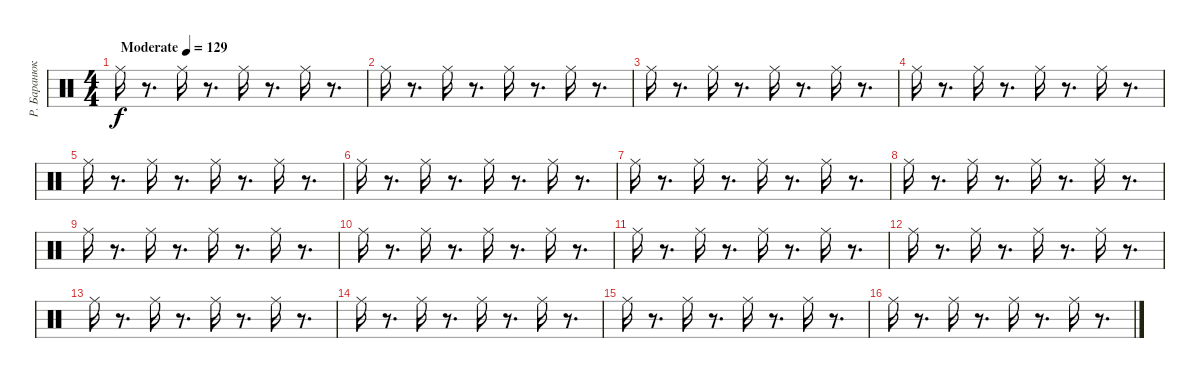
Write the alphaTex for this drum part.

\track ("Р. Баранюк" "Р. Баранюк") {instrument percussion}
\staff {score}
\articulation defaults
\ts (4 4)
\tempo (129 "Moderate")
\clef neutral
\ks c "Ride (middle)".16{dy f}
r.8{d} "Ride (middle)".16 r.8{d} "Ride (middle)".16 r.8{d} "Ride (middle)".16 r.8{d} |
"Ride (middle)".16 r.8{d} "Ride (middle)".16 r.8{d} "Ride (middle)".16 r.8{d} "Ride (middle)".16 r.8{d} |
"Ride (middle)".16 r.8{d} "Ride (middle)".16 r.8{d} "Ride (middle)".16 r.8{d} "Ride (middle)".16 r.8{d} |
"Ride (middle)".16 r.8{d} "Ride (middle)".16 r.8{d} "Ride (middle)".16 r.8{d} "Ride (middle)".16 r.8{d} |
"Ride (middle)".16 r.8{d} "Ride (middle)".16 r.8{d} "Ride (middle)".16 r.8{d} "Ride (middle)".16 r.8{d} |
"Ride (middle)".16 r.8{d} "Ride (middle)".16 r.8{d} "Ride (middle)".16 r.8{d} "Ride (middle)".16 r.8{d} |
"Ride (middle)".16 r.8{d} "Ride (middle)".16 r.8{d} "Ride (middle)".16 r.8{d} "Ride (middle)".16 r.8{d} |
"Ride (middle)".16 r.8{d} "Ride (middle)".16 r.8{d} "Ride (middle)".16 r.8{d} "Ride (middle)".16 r.8{d} |
"Ride (middle)".16 r.8{d} "Ride (middle)".16 r.8{d} "Ride (middle)".16 r.8{d} "Ride (middle)".16 r.8{d} |
"Ride (middle)".16 r.8{d} "Ride (middle)".16 r.8{d} "Ride (middle)".16 r.8{d} "Ride (middle)".16 r.8{d} |
"Ride (middle)".16 r.8{d} "Ride (middle)".16 r.8{d} "Ride (middle)".16 r.8{d} "Ride (middle)".16 r.8{d} |
"Ride (middle)".16 r.8{d} "Ride (middle)".16 r.8{d} "Ride (middle)".16 r.8{d} "Ride (middle)".16 r.8{d} |
"Ride (middle)".16 r.8{d} "Ride (middle)".16 r.8{d} "Ride (middle)".16 r.8{d} "Ride (middle)".16 r.8{d} |
"Ride (middle)".16 r.8{d} "Ride (middle)".16 r.8{d} "Ride (middle)".16 r.8{d} "Ride (middle)".16 r.8{d} |
"Ride (middle)".16 r.8{d} "Ride (middle)".16 r.8{d} "Ride (middle)".16 r.8{d} "Ride (middle)".16 r.8{d} |
"Ride (middle)".16 r.8{d} "Ride (middle)".16 r.8{d} "Ride (middle)".16 r.8{d} "Ride (middle)".16 r.8{d}
